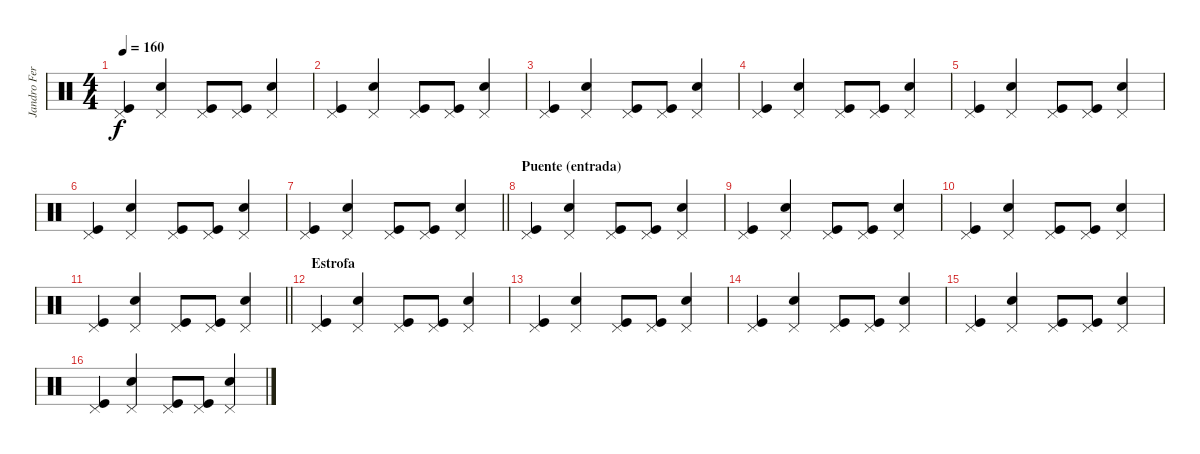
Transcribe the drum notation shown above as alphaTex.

\track ("Jandro Fernández" "Jandro Fer") {instrument percussion}
\staff
\articulation defaults
\ts (4 4)
\tempo 160
\clef neutral
\ks c
("Pedal Hi-Hat (hit)" "Kick (hit)").4{dy f} ("Pedal Hi-Hat (hit)" "Snare (hit) 2").4 ("Pedal Hi-Hat (hit)" "Kick (hit)").8 ("Pedal Hi-Hat (hit)" "Kick (hit)").8 ("Pedal Hi-Hat (hit)" "Snare (hit) 2").4 |
("Pedal Hi-Hat (hit)" "Kick (hit)").4 ("Pedal Hi-Hat (hit)" "Snare (hit) 2").4 ("Pedal Hi-Hat (hit)" "Kick (hit)").8 ("Pedal Hi-Hat (hit)" "Kick (hit)").8 ("Pedal Hi-Hat (hit)" "Snare (hit) 2").4 |
("Pedal Hi-Hat (hit)" "Kick (hit)").4 ("Pedal Hi-Hat (hit)" "Snare (hit) 2").4 ("Pedal Hi-Hat (hit)" "Kick (hit)").8 ("Pedal Hi-Hat (hit)" "Kick (hit)").8 ("Pedal Hi-Hat (hit)" "Snare (hit) 2").4 |
("Pedal Hi-Hat (hit)" "Kick (hit)").4 ("Pedal Hi-Hat (hit)" "Snare (hit) 2").4 ("Pedal Hi-Hat (hit)" "Kick (hit)").8 ("Pedal Hi-Hat (hit)" "Kick (hit)").8 ("Pedal Hi-Hat (hit)" "Snare (hit) 2").4 |
("Pedal Hi-Hat (hit)" "Kick (hit)").4 ("Pedal Hi-Hat (hit)" "Snare (hit) 2").4 ("Pedal Hi-Hat (hit)" "Kick (hit)").8 ("Pedal Hi-Hat (hit)" "Kick (hit)").8 ("Pedal Hi-Hat (hit)" "Snare (hit) 2").4 |
("Pedal Hi-Hat (hit)" "Kick (hit)").4 ("Pedal Hi-Hat (hit)" "Snare (hit) 2").4 ("Pedal Hi-Hat (hit)" "Kick (hit)").8 ("Pedal Hi-Hat (hit)" "Kick (hit)").8 ("Pedal Hi-Hat (hit)" "Snare (hit) 2").4 |
\barLineRight lightlight
("Pedal Hi-Hat (hit)" "Kick (hit)").4 ("Pedal Hi-Hat (hit)" "Snare (hit) 2").4 ("Pedal Hi-Hat (hit)" "Kick (hit)").8 ("Pedal Hi-Hat (hit)" "Kick (hit)").8 ("Pedal Hi-Hat (hit)" "Snare (hit) 2").4 |
\section ("" "Puente (entrada)")
("Pedal Hi-Hat (hit)" "Kick (hit)").4 ("Pedal Hi-Hat (hit)" "Snare (hit) 2").4 ("Pedal Hi-Hat (hit)" "Kick (hit)").8 ("Pedal Hi-Hat (hit)" "Kick (hit)").8 ("Pedal Hi-Hat (hit)" "Snare (hit) 2").4 |
("Pedal Hi-Hat (hit)" "Kick (hit)").4 ("Pedal Hi-Hat (hit)" "Snare (hit) 2").4 ("Pedal Hi-Hat (hit)" "Kick (hit)").8 ("Pedal Hi-Hat (hit)" "Kick (hit)").8 ("Pedal Hi-Hat (hit)" "Snare (hit) 2").4 |
("Pedal Hi-Hat (hit)" "Kick (hit)").4 ("Pedal Hi-Hat (hit)" "Snare (hit) 2").4 ("Pedal Hi-Hat (hit)" "Kick (hit)").8 ("Pedal Hi-Hat (hit)" "Kick (hit)").8 ("Pedal Hi-Hat (hit)" "Snare (hit) 2").4 |
\barLineRight lightlight
("Pedal Hi-Hat (hit)" "Kick (hit)").4 ("Pedal Hi-Hat (hit)" "Snare (hit) 2").4 ("Pedal Hi-Hat (hit)" "Kick (hit)").8 ("Pedal Hi-Hat (hit)" "Kick (hit)").8 ("Pedal Hi-Hat (hit)" "Snare (hit) 2").4 |
\section ("" "Estrofa")
("Pedal Hi-Hat (hit)" "Kick (hit)").4 ("Pedal Hi-Hat (hit)" "Snare (hit) 2").4 ("Pedal Hi-Hat (hit)" "Kick (hit)").8 ("Pedal Hi-Hat (hit)" "Kick (hit)").8 ("Pedal Hi-Hat (hit)" "Snare (hit) 2").4 |
("Pedal Hi-Hat (hit)" "Kick (hit)").4 ("Pedal Hi-Hat (hit)" "Snare (hit) 2").4 ("Pedal Hi-Hat (hit)" "Kick (hit)").8 ("Pedal Hi-Hat (hit)" "Kick (hit)").8 ("Pedal Hi-Hat (hit)" "Snare (hit) 2").4 |
("Pedal Hi-Hat (hit)" "Kick (hit)").4 ("Pedal Hi-Hat (hit)" "Snare (hit) 2").4 ("Pedal Hi-Hat (hit)" "Kick (hit)").8 ("Pedal Hi-Hat (hit)" "Kick (hit)").8 ("Pedal Hi-Hat (hit)" "Snare (hit) 2").4 |
("Pedal Hi-Hat (hit)" "Kick (hit)").4 ("Pedal Hi-Hat (hit)" "Snare (hit) 2").4 ("Pedal Hi-Hat (hit)" "Kick (hit)").8 ("Pedal Hi-Hat (hit)" "Kick (hit)").8 ("Pedal Hi-Hat (hit)" "Snare (hit) 2").4 |
("Pedal Hi-Hat (hit)" "Kick (hit)").4 ("Pedal Hi-Hat (hit)" "Snare (hit) 2").4 ("Pedal Hi-Hat (hit)" "Kick (hit)").8 ("Pedal Hi-Hat (hit)" "Kick (hit)").8 ("Pedal Hi-Hat (hit)" "Snare (hit) 2").4
